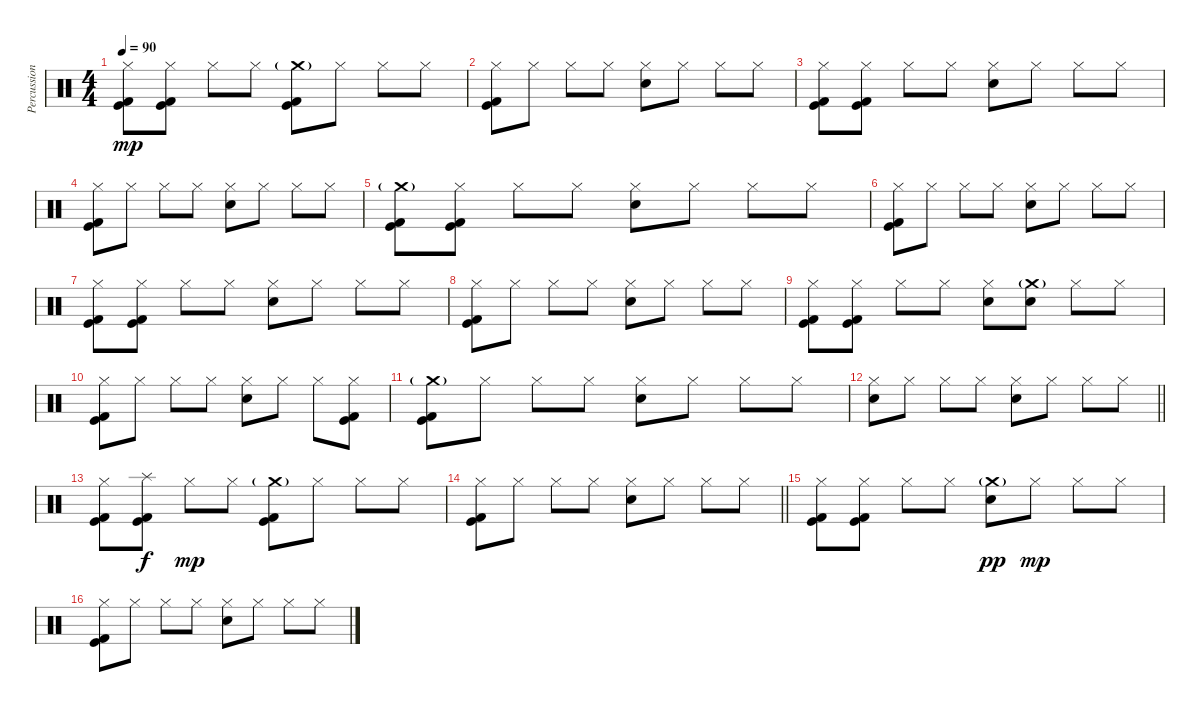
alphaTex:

\track ("Percussion" "Percussion") {instrument percussion}
\staff {score}
\articulation defaults
\ts (4 4)
\tempo 90
\clef neutral
\ks c
("Hi-Hat (closed)" "Kick (hit)" "Kick (hit) 2").8{dy mp} ("Hi-Hat (closed)" "Kick (hit)" "Kick (hit) 2").8 "Hi-Hat (closed)".8 "Hi-Hat (closed)".8 ("Crash medium (hit)"{g} "Kick (hit)" "Kick (hit) 2").8 "Hi-Hat (closed)".8 "Hi-Hat (closed)".8 "Hi-Hat (closed)".8 |
("Hi-Hat (closed)" "Kick (hit)" "Kick (hit) 2").8 "Hi-Hat (closed)".8 "Hi-Hat (closed)".8 "Hi-Hat (closed)".8 ("Hi-Hat (closed)" "Electric Snare (hit)").8 "Hi-Hat (closed)".8 "Hi-Hat (closed)".8 "Hi-Hat (closed)".8 |
("Hi-Hat (closed)" "Kick (hit)" "Kick (hit) 2").8 ("Hi-Hat (closed)" "Kick (hit)" "Kick (hit) 2").8 "Hi-Hat (closed)".8 "Hi-Hat (closed)".8 ("Hi-Hat (closed)" "Electric Snare (hit)").8 "Hi-Hat (closed)".8 "Hi-Hat (closed)".8 "Hi-Hat (closed)".8 |
("Hi-Hat (closed)" "Kick (hit)" "Kick (hit) 2").8 "Hi-Hat (closed)".8 "Hi-Hat (closed)".8 "Hi-Hat (closed)".8 ("Hi-Hat (closed)" "Electric Snare (hit)").8 "Hi-Hat (closed)".8 "Hi-Hat (closed)".8 "Hi-Hat (closed)".8 |
("Crash medium (hit)"{g} "Kick (hit)" "Kick (hit) 2").8 ("Hi-Hat (closed)" "Kick (hit)" "Kick (hit) 2").8 "Hi-Hat (closed)".8 "Hi-Hat (closed)".8 ("Hi-Hat (closed)" "Electric Snare (hit)").8 "Hi-Hat (closed)".8 "Hi-Hat (closed)".8 "Hi-Hat (closed)".8 |
("Hi-Hat (closed)" "Kick (hit)" "Kick (hit) 2").8 "Hi-Hat (closed)".8 "Hi-Hat (closed)".8 "Hi-Hat (closed)".8 ("Hi-Hat (closed)" "Electric Snare (hit)").8 "Hi-Hat (closed)".8 "Hi-Hat (closed)".8 "Hi-Hat (closed)".8 |
("Hi-Hat (closed)" "Kick (hit)" "Kick (hit) 2").8 ("Hi-Hat (closed)" "Kick (hit)" "Kick (hit) 2").8 "Hi-Hat (closed)".8 "Hi-Hat (closed)".8 ("Hi-Hat (closed)" "Electric Snare (hit)").8 "Hi-Hat (closed)".8 "Hi-Hat (closed)".8 "Hi-Hat (closed)".8 |
("Hi-Hat (closed)" "Kick (hit)" "Kick (hit) 2").8 "Hi-Hat (closed)".8 "Hi-Hat (closed)".8 "Hi-Hat (closed)".8 ("Hi-Hat (closed)" "Electric Snare (hit)").8 "Hi-Hat (closed)".8 "Hi-Hat (closed)".8 "Hi-Hat (closed)".8 |
("Hi-Hat (closed)" "Kick (hit)" "Kick (hit) 2").8 ("Hi-Hat (closed)" "Kick (hit)" "Kick (hit) 2").8 "Hi-Hat (closed)".8 "Hi-Hat (closed)".8 ("Hi-Hat (closed)" "Electric Snare (hit)").8 ("Crash medium (hit)"{g} "Electric Snare (hit)").8 "Hi-Hat (closed)".8 "Hi-Hat (closed)".8 |
("Hi-Hat (closed)" "Kick (hit)" "Kick (hit) 2").8 "Hi-Hat (closed)".8 "Hi-Hat (closed)".8 "Hi-Hat (closed)".8 ("Hi-Hat (closed)" "Electric Snare (hit)").8 "Hi-Hat (closed)".8 "Hi-Hat (closed)".8 ("Hi-Hat (closed)" "Kick (hit)" "Kick (hit) 2").8 |
("Crash medium (hit)"{g} "Kick (hit)" "Kick (hit) 2").8 "Hi-Hat (closed)".8 "Hi-Hat (closed)".8 "Hi-Hat (closed)".8 ("Hi-Hat (closed)" "Electric Snare (hit)").8 "Hi-Hat (closed)".8 "Hi-Hat (closed)".8 "Hi-Hat (closed)".8 |
\barLineRight lightlight
("Hi-Hat (closed)" "Electric Snare (hit)").8 "Hi-Hat (closed)".8 "Hi-Hat (closed)".8 "Hi-Hat (closed)".8 ("Hi-Hat (closed)" "Electric Snare (hit)").8 "Hi-Hat (closed)".8 "Hi-Hat (closed)".8 "Hi-Hat (closed)".8 |
("Hi-Hat (closed)" "Kick (hit)" "Kick (hit) 2").8 ("Splash (hit)" "Kick (hit)" "Kick (hit) 2").8{dy f} "Hi-Hat (closed)".8{dy mp} "Hi-Hat (closed)".8 ("Crash medium (hit)"{g} "Kick (hit)" "Kick (hit) 2").8 "Hi-Hat (closed)".8 "Hi-Hat (closed)".8 "Hi-Hat (closed)".8 |
\barLineRight lightlight
("Hi-Hat (closed)" "Kick (hit)" "Kick (hit) 2").8 "Hi-Hat (closed)".8 "Hi-Hat (closed)".8 "Hi-Hat (closed)".8 ("Hi-Hat (closed)" "Electric Snare (hit)").8 "Hi-Hat (closed)".8 "Hi-Hat (closed)".8 "Hi-Hat (closed)".8 |
\section ("" "")
("Hi-Hat (closed)" "Kick (hit)" "Kick (hit) 2").8 ("Hi-Hat (closed)" "Kick (hit)" "Kick (hit) 2").8 "Hi-Hat (closed)".8 "Hi-Hat (closed)".8 ("Crash medium (hit)"{g} "Electric Snare (hit)").8{dy pp} "Hi-Hat (closed)".8{dy mp} "Hi-Hat (closed)".8 "Hi-Hat (closed)".8 |
("Hi-Hat (closed)" "Kick (hit)" "Kick (hit) 2").8 "Hi-Hat (closed)".8 "Hi-Hat (closed)".8 "Hi-Hat (closed)".8 ("Hi-Hat (closed)" "Electric Snare (hit)").8 "Hi-Hat (closed)".8 "Hi-Hat (closed)".8 "Hi-Hat (closed)".8
